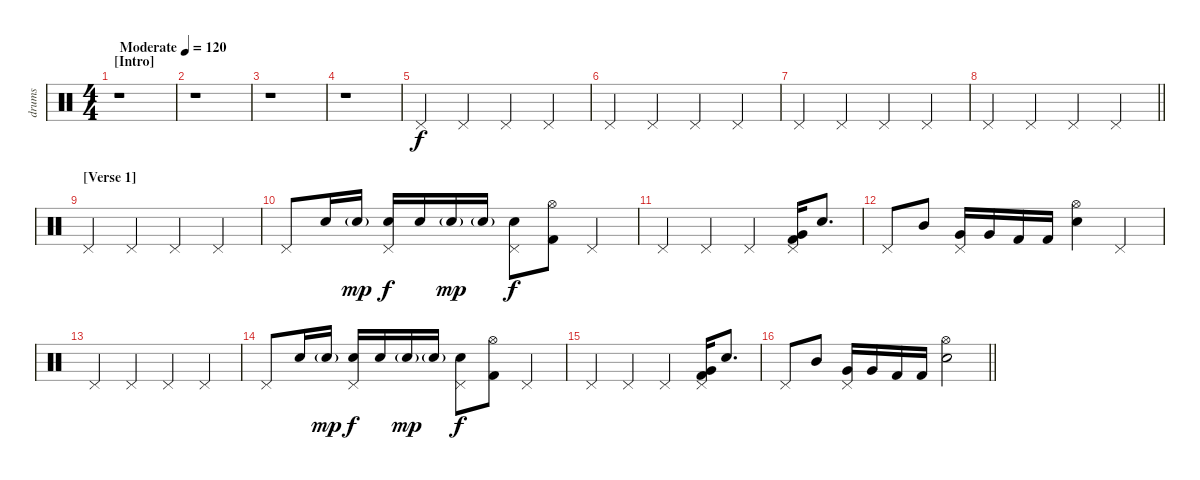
\track ("drums" "drums") {instrument percussion}
\staff {score}
\articulation defaults
\ts (4 4)
\section ("" "[Intro]")
\tempo (120 "Moderate")
\clef neutral
\ks c
r.1{dy f} |
r.1 |
r.1 |
r.1 |
"Pedal Hi-Hat (hit)".4 "Pedal Hi-Hat (hit)".4 "Pedal Hi-Hat (hit)".4 "Pedal Hi-Hat (hit)".4 |
"Pedal Hi-Hat (hit)".4 "Pedal Hi-Hat (hit)".4 "Pedal Hi-Hat (hit)".4 "Pedal Hi-Hat (hit)".4 |
"Pedal Hi-Hat (hit)".4 "Pedal Hi-Hat (hit)".4 "Pedal Hi-Hat (hit)".4 "Pedal Hi-Hat (hit)".4 |
\barLineRight lightlight "Pedal Hi-Hat (hit)".4 "Pedal Hi-Hat (hit)".4 "Pedal Hi-Hat (hit)".4 "Pedal Hi-Hat (hit)".4
|
\section ("" "[Verse 1]")
"Pedal Hi-Hat (hit)".4 "Pedal Hi-Hat (hit)".4 "Pedal Hi-Hat (hit)".4 "Pedal Hi-Hat (hit)".4 |
"Pedal Hi-Hat (hit)".8 "Electric Snare (hit)".16 "Electric Snare (hit)"{g}.16{dy mp} ("Pedal Hi-Hat (hit)" "Electric Snare (hit)").16{dy f} "Electric Snare (hit)".16 "Electric Snare (hit)"{g}.16{dy mp} "Electric Snare (hit)"{g}.16 ("Pedal Hi-Hat (hit)" "Electric Snare (hit)").8{dy f} ("Hi-Hat (open)" "Kick (hit) 2").8 "Pedal Hi-Hat (hit)".4 |
"Pedal Hi-Hat (hit)".4 "Pedal Hi-Hat (hit)".4 "Pedal Hi-Hat (hit)".4 ("Pedal Hi-Hat (hit)" "Very Low Tom (hit)" "Kick (hit) 2").16 "Electric Snare (hit)".8{d} |
"Pedal Hi-Hat (hit)".8 "Mid Tom (hit)".8 ("Pedal Hi-Hat (hit)" "Very Low Tom (hit)").16 "Very Low Tom (hit)".16 "Kick (hit) 2".16 "Kick (hit) 2".16 ("Hi-Hat (open)" "Electric Snare (hit)").4 "Pedal Hi-Hat (hit)".4 |
"Pedal Hi-Hat (hit)".4 "Pedal Hi-Hat (hit)".4 "Pedal Hi-Hat (hit)".4 "Pedal Hi-Hat (hit)".4 |
"Pedal Hi-Hat (hit)".8 "Electric Snare (hit)".16 "Electric Snare (hit)"{g}.16{dy mp} ("Pedal Hi-Hat (hit)" "Electric Snare (hit)").16{dy f} "Electric Snare (hit)".16 "Electric Snare (hit)"{g}.16{dy mp} "Electric Snare (hit)"{g}.16 ("Pedal Hi-Hat (hit)" "Electric Snare (hit)").8{dy f} ("Hi-Hat (open)" "Kick (hit) 2").8 "Pedal Hi-Hat (hit)".4 |
"Pedal Hi-Hat (hit)".4 "Pedal Hi-Hat (hit)".4 "Pedal Hi-Hat (hit)".4 ("Pedal Hi-Hat (hit)" "Very Low Tom (hit)" "Kick (hit) 2").16 "Electric Snare (hit)".8{d} |
\barLineRight lightlight "Pedal Hi-Hat (hit)".8 "Mid Tom (hit)".8
("Pedal Hi-Hat (hit)" "Very Low Tom (hit)").16 "Very Low Tom (hit)".16 "Kick (hit) 2".16 "Kick (hit) 2".16 ("Hi-Hat (open)" "Electric Snare (hit)").2
